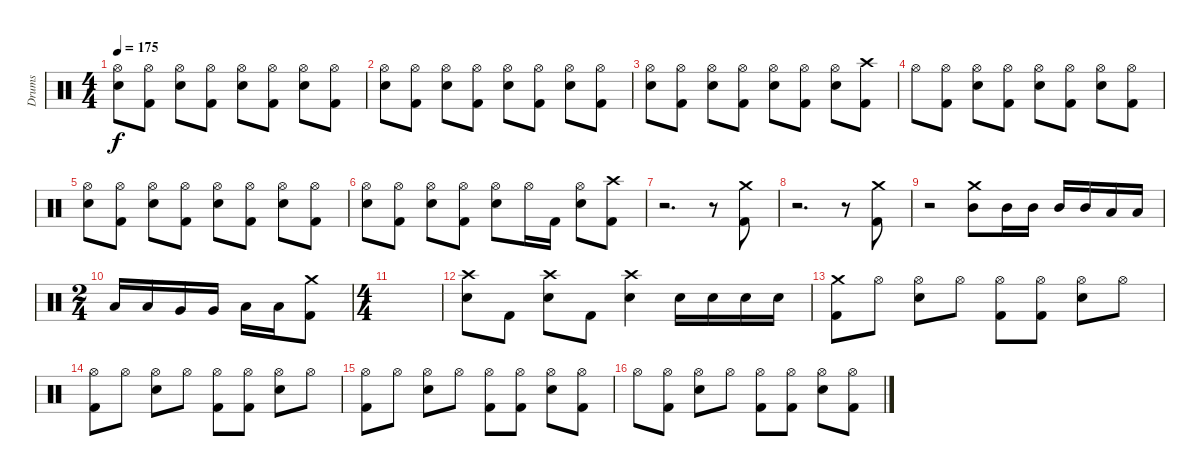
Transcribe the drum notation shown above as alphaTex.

\track ("Drums" "Drums") {instrument percussion}
\staff {score}
\articulation defaults
\ts (4 4)
\tempo 175
\clef neutral
\ks c
("Hi-Hat (open)" "Snare (hit) 2").8{dy f} ("Hi-Hat (open)" "Kick (hit) 2").8 ("Hi-Hat (open)" "Snare (hit) 2").8 ("Hi-Hat (open)" "Kick (hit) 2").8 ("Hi-Hat (open)" "Snare (hit) 2").8 ("Hi-Hat (open)" "Kick (hit) 2").8 ("Hi-Hat (open)" "Snare (hit) 2").8 ("Hi-Hat (open)" "Kick (hit) 2").8 |
("Hi-Hat (open)" "Snare (hit) 2").8 ("Hi-Hat (open)" "Kick (hit) 2").8 ("Hi-Hat (open)" "Snare (hit) 2").8 ("Hi-Hat (open)" "Kick (hit) 2").8 ("Hi-Hat (open)" "Snare (hit) 2").8 ("Hi-Hat (open)" "Kick (hit) 2").8 ("Hi-Hat (open)" "Snare (hit) 2").8 ("Hi-Hat (open)" "Kick (hit) 2").8 |
("Hi-Hat (open)" "Snare (hit) 2").8 ("Hi-Hat (open)" "Kick (hit) 2").8 ("Hi-Hat (open)" "Snare (hit) 2").8 ("Hi-Hat (open)" "Kick (hit) 2").8 ("Hi-Hat (open)" "Snare (hit) 2").8 ("Hi-Hat (open)" "Kick (hit) 2").8 ("Hi-Hat (open)" "Snare (hit) 2").8 ("Crash high (hit)" "Kick (hit) 2").8 |
"Hi-Hat (open)".8 ("Hi-Hat (open)" "Kick (hit) 2").8 ("Hi-Hat (open)" "Snare (hit) 2").8 ("Hi-Hat (open)" "Kick (hit) 2").8 ("Hi-Hat (open)" "Snare (hit) 2").8 ("Hi-Hat (open)" "Kick (hit) 2").8 ("Hi-Hat (open)" "Snare (hit) 2").8 ("Hi-Hat (open)" "Kick (hit) 2").8 |
("Hi-Hat (open)" "Snare (hit) 2").8 ("Hi-Hat (open)" "Kick (hit) 2").8 ("Hi-Hat (open)" "Snare (hit) 2").8 ("Hi-Hat (open)" "Kick (hit) 2").8 ("Hi-Hat (open)" "Snare (hit) 2").8 ("Hi-Hat (open)" "Kick (hit) 2").8 ("Hi-Hat (open)" "Snare (hit) 2").8 ("Hi-Hat (open)" "Kick (hit) 2").8 |
("Hi-Hat (open)" "Snare (hit) 2").8 ("Hi-Hat (open)" "Kick (hit) 2").8 ("Hi-Hat (open)" "Snare (hit) 2").8 ("Hi-Hat (open)" "Kick (hit) 2").8 ("Hi-Hat (open)" "Snare (hit) 2").8 "Hi-Hat (open)".16 "Kick (hit) 2".16 ("Hi-Hat (open)" "Snare (hit) 2").8 ("Crash high (hit)" "Kick (hit) 2").8 |
r.2{d} r.8 ("Crash medium (hit)" "Kick (hit) 2").8 |
r.2{d} r.8 ("Crash medium (hit)" "Kick (hit) 2").8 |
r.2 ("Crash medium (hit)" "Mid Tom (hit)").8 "Mid Tom (hit)".16 "Mid Tom (hit)".16 "Mid Tom (hit)".16 "Mid Tom (hit)".16 "Low Tom (hit)".16 "Low Tom (hit)".16 |
\ts (2 4)
"Low Tom (hit)".16 "Low Tom (hit)".16 "Very Low Tom (hit)".16 "Very Low Tom (hit)".16 "Low Floor Tom (hit)".16 "Low Floor Tom (hit)".16 ("Crash medium (hit)" "Kick (hit) 2").8 |
\ts (4 4)
|
("Crash high (hit)" "Snare (hit) 2").8 "Kick (hit) 2".8 ("Crash high (hit)" "Snare (hit) 2").8 "Kick (hit) 2".8 ("Crash high (hit)" "Snare (hit) 2").4 "Snare (hit) 2".16 "Snare (hit) 2".16 "Snare (hit) 2".16 "Snare (hit) 2".16 |
("Crash medium (hit)" "Kick (hit) 2").8 "Hi-Hat (open)".8 ("Hi-Hat (open)" "Snare (hit) 2").8 "Hi-Hat (open)".8 ("Hi-Hat (open)" "Kick (hit) 2").8 ("Hi-Hat (open)" "Kick (hit) 2").8 ("Hi-Hat (open)" "Snare (hit) 2").8 "Hi-Hat (open)".8 |
("Hi-Hat (open)" "Kick (hit) 2").8 "Hi-Hat (open)".8 ("Hi-Hat (open)" "Snare (hit) 2").8 "Hi-Hat (open)".8 ("Hi-Hat (open)" "Kick (hit) 2").8 ("Hi-Hat (open)" "Kick (hit) 2").8 ("Hi-Hat (open)" "Snare (hit) 2").8 "Hi-Hat (open)".8 |
("Hi-Hat (open)" "Kick (hit) 2").8 "Hi-Hat (open)".8 ("Hi-Hat (open)" "Snare (hit) 2").8 "Hi-Hat (open)".8 ("Hi-Hat (open)" "Kick (hit) 2").8 ("Hi-Hat (open)" "Kick (hit) 2").8 ("Hi-Hat (open)" "Snare (hit) 2").8 ("Hi-Hat (open)" "Kick (hit) 2").8 |
"Hi-Hat (open)".8 ("Hi-Hat (open)" "Kick (hit) 2").8 ("Hi-Hat (open)" "Snare (hit) 2").8 "Hi-Hat (open)".8 ("Hi-Hat (open)" "Kick (hit) 2").8 ("Hi-Hat (open)" "Kick (hit) 2").8 ("Hi-Hat (open)" "Snare (hit) 2").8 ("Hi-Hat (open)" "Kick (hit) 2").8
